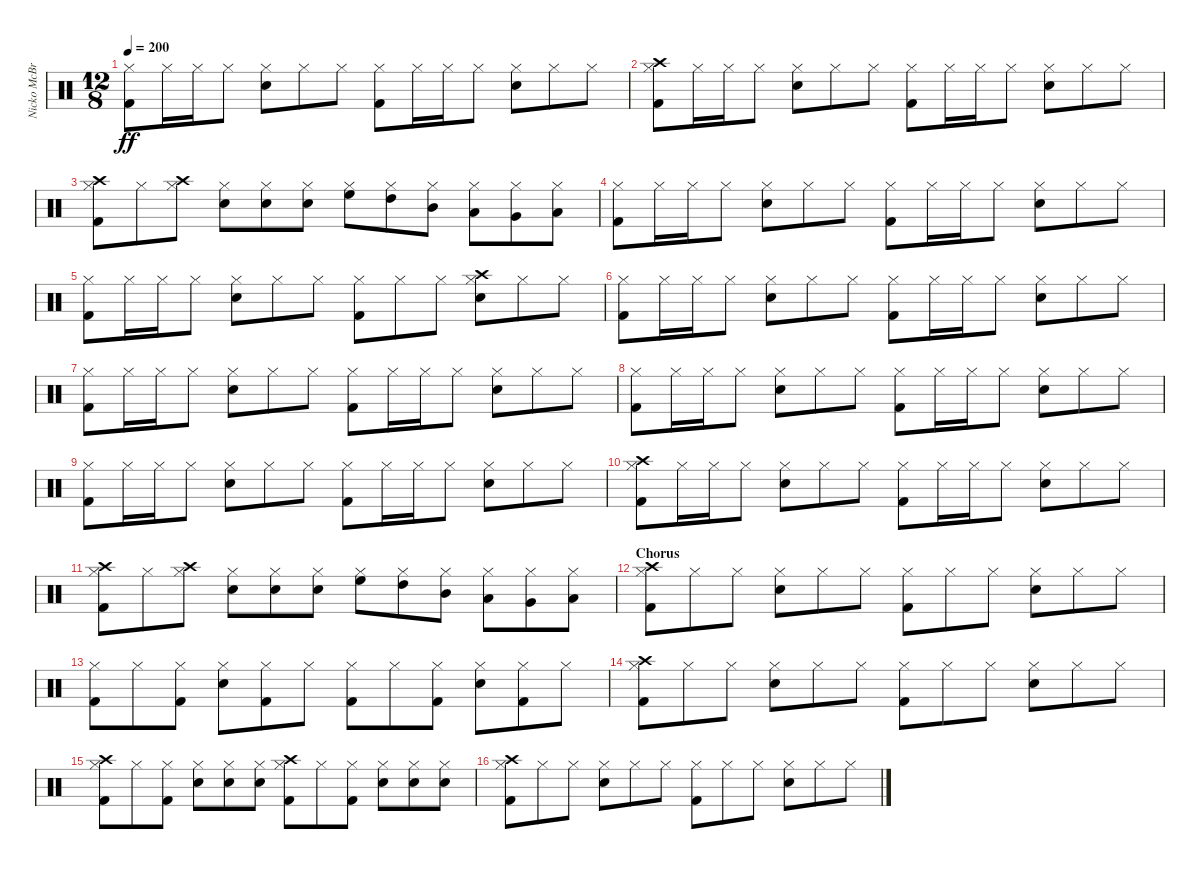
\track ("Nicko McBrain" "Nicko McBr") {instrument percussion}
\staff {score}
\articulation defaults
\ts (12 8)
\tempo 200
\clef neutral
\ks c
("Kick (hit) 2" "Hi-Hat (closed)").8{dy ff} "Hi-Hat (closed)".16 "Hi-Hat (closed)".16 "Hi-Hat (closed)".8 ("Snare (hit) 2" "Hi-Hat (closed)").8 "Hi-Hat (closed)".8 "Hi-Hat (closed)".8 ("Kick (hit) 2" "Hi-Hat (closed)").8 "Hi-Hat (closed)".16 "Hi-Hat (closed)".16 "Hi-Hat (closed)".8 ("Snare (hit) 2" "Hi-Hat (closed)").8 "Hi-Hat (closed)".8 "Hi-Hat (closed)".8 |
("Kick (hit) 2" "Hi-Hat (closed)" "Crash high (hit)").8 "Hi-Hat (closed)".16 "Hi-Hat (closed)".16 "Hi-Hat (closed)".8 ("Snare (hit) 2" "Hi-Hat (closed)").8 "Hi-Hat (closed)".8 "Hi-Hat (closed)".8 ("Kick (hit) 2" "Hi-Hat (closed)").8 "Hi-Hat (closed)".16 "Hi-Hat (closed)".16 "Hi-Hat (closed)".8 ("Snare (hit) 2" "Hi-Hat (closed)").8 "Hi-Hat (closed)".8 "Hi-Hat (closed)".8 |
("Kick (hit) 2" "Hi-Hat (closed)" "Crash high (hit)").8 "Hi-Hat (closed)".8 ("Hi-Hat (closed)" "Crash high (hit)").8 ("Snare (hit) 2" "Hi-Hat (closed)").8 ("Snare (hit) 2" "Hi-Hat (closed)").8 ("Snare (hit) 2" "Hi-Hat (closed)").8 ("Hi-Hat (closed)" "High Floor Tom (hit)").8 ("Hi-Hat (closed)" "High Tom (hit)").8 ("Hi-Hat (closed)" "Mid Tom (hit)").8 ("Hi-Hat (closed)" "Low Tom (hit)").8 ("Hi-Hat (closed)" "Very Low Tom (hit)").8 ("Low Floor Tom (hit)" "Hi-Hat (closed)").8 |
("Kick (hit) 2" "Hi-Hat (closed)").8 "Hi-Hat (closed)".16 "Hi-Hat (closed)".16 "Hi-Hat (closed)".8 ("Snare (hit) 2" "Hi-Hat (closed)").8 "Hi-Hat (closed)".8 "Hi-Hat (closed)".8 ("Kick (hit) 2" "Hi-Hat (closed)").8 "Hi-Hat (closed)".16 "Hi-Hat (closed)".16 "Hi-Hat (closed)".8 ("Snare (hit) 2" "Hi-Hat (closed)").8 "Hi-Hat (closed)".8 "Hi-Hat (closed)".8 |
("Kick (hit) 2" "Hi-Hat (closed)").8 "Hi-Hat (closed)".16 "Hi-Hat (closed)".16 "Hi-Hat (closed)".8 ("Snare (hit) 2" "Hi-Hat (closed)").8 "Hi-Hat (closed)".8 "Hi-Hat (closed)".8 ("Kick (hit) 2" "Hi-Hat (closed)").8 "Hi-Hat (closed)".8 "Hi-Hat (closed)".8 ("Snare (hit) 2" "Hi-Hat (closed)" "Crash high (hit)").8 "Hi-Hat (closed)".8 "Hi-Hat (closed)".8 |
("Kick (hit) 2" "Hi-Hat (closed)").8 "Hi-Hat (closed)".16 "Hi-Hat (closed)".16 "Hi-Hat (closed)".8 ("Snare (hit) 2" "Hi-Hat (closed)").8 "Hi-Hat (closed)".8 "Hi-Hat (closed)".8 ("Kick (hit) 2" "Hi-Hat (closed)").8 "Hi-Hat (closed)".16 "Hi-Hat (closed)".16 "Hi-Hat (closed)".8 ("Snare (hit) 2" "Hi-Hat (closed)").8 "Hi-Hat (closed)".8 "Hi-Hat (closed)".8 |
("Kick (hit) 2" "Hi-Hat (closed)").8 "Hi-Hat (closed)".16 "Hi-Hat (closed)".16 "Hi-Hat (closed)".8 ("Snare (hit) 2" "Hi-Hat (closed)").8 "Hi-Hat (closed)".8 "Hi-Hat (closed)".8 ("Kick (hit) 2" "Hi-Hat (closed)").8 "Hi-Hat (closed)".16 "Hi-Hat (closed)".16 "Hi-Hat (closed)".8 ("Snare (hit) 2" "Hi-Hat (closed)").8 "Hi-Hat (closed)".8 "Hi-Hat (closed)".8 |
("Kick (hit) 2" "Hi-Hat (closed)").8 "Hi-Hat (closed)".16 "Hi-Hat (closed)".16 "Hi-Hat (closed)".8 ("Snare (hit) 2" "Hi-Hat (closed)").8 "Hi-Hat (closed)".8 "Hi-Hat (closed)".8 ("Kick (hit) 2" "Hi-Hat (closed)").8 "Hi-Hat (closed)".16 "Hi-Hat (closed)".16 "Hi-Hat (closed)".8 ("Snare (hit) 2" "Hi-Hat (closed)").8 "Hi-Hat (closed)".8 "Hi-Hat (closed)".8 |
("Kick (hit) 2" "Hi-Hat (closed)").8 "Hi-Hat (closed)".16 "Hi-Hat (closed)".16 "Hi-Hat (closed)".8 ("Snare (hit) 2" "Hi-Hat (closed)").8 "Hi-Hat (closed)".8 "Hi-Hat (closed)".8 ("Kick (hit) 2" "Hi-Hat (closed)").8 "Hi-Hat (closed)".16 "Hi-Hat (closed)".16 "Hi-Hat (closed)".8 ("Snare (hit) 2" "Hi-Hat (closed)").8 "Hi-Hat (closed)".8 "Hi-Hat (closed)".8 |
("Kick (hit) 2" "Hi-Hat (closed)" "Crash high (hit)").8 "Hi-Hat (closed)".16 "Hi-Hat (closed)".16 "Hi-Hat (closed)".8 ("Snare (hit) 2" "Hi-Hat (closed)").8 "Hi-Hat (closed)".8 "Hi-Hat (closed)".8 ("Kick (hit) 2" "Hi-Hat (closed)").8 "Hi-Hat (closed)".16 "Hi-Hat (closed)".16 "Hi-Hat (closed)".8 ("Snare (hit) 2" "Hi-Hat (closed)").8 "Hi-Hat (closed)".8 "Hi-Hat (closed)".8 |
("Kick (hit) 2" "Hi-Hat (closed)" "Crash high (hit)").8 "Hi-Hat (closed)".8 ("Hi-Hat (closed)" "Crash high (hit)").8 ("Snare (hit) 2" "Hi-Hat (closed)").8 ("Snare (hit) 2" "Hi-Hat (closed)").8 ("Snare (hit) 2" "Hi-Hat (closed)").8 ("Hi-Hat (closed)" "High Floor Tom (hit)").8 ("Hi-Hat (closed)" "High Tom (hit)").8 ("Hi-Hat (closed)" "Mid Tom (hit)").8 ("Hi-Hat (closed)" "Low Tom (hit)").8 ("Hi-Hat (closed)" "Very Low Tom (hit)").8 ("Low Floor Tom (hit)" "Hi-Hat (closed)").8 |
\section ("" "Chorus")
("Kick (hit) 2" "Hi-Hat (closed)" "Crash high (hit)").8 "Hi-Hat (closed)".8 "Hi-Hat (closed)".8 ("Snare (hit) 2" "Hi-Hat (closed)").8 "Hi-Hat (closed)".8 "Hi-Hat (closed)".8 ("Kick (hit) 2" "Hi-Hat (closed)").8 "Hi-Hat (closed)".8 "Hi-Hat (closed)".8 ("Snare (hit) 2" "Hi-Hat (closed)").8 "Hi-Hat (closed)".8 "Hi-Hat (closed)".8 |
("Kick (hit) 2" "Hi-Hat (closed)").8 "Hi-Hat (closed)".8 ("Kick (hit) 2" "Hi-Hat (closed)").8 ("Snare (hit) 2" "Hi-Hat (closed)").8 ("Kick (hit) 2" "Hi-Hat (closed)").8 "Hi-Hat (closed)".8 ("Kick (hit) 2" "Hi-Hat (closed)").8 "Hi-Hat (closed)".8 ("Kick (hit) 2" "Hi-Hat (closed)").8 ("Snare (hit) 2" "Hi-Hat (closed)").8 ("Kick (hit) 2" "Hi-Hat (closed)").8 "Hi-Hat (closed)".8 |
("Kick (hit) 2" "Hi-Hat (closed)" "Crash high (hit)").8 "Hi-Hat (closed)".8 "Hi-Hat (closed)".8 ("Snare (hit) 2" "Hi-Hat (closed)").8 "Hi-Hat (closed)".8 "Hi-Hat (closed)".8 ("Kick (hit) 2" "Hi-Hat (closed)").8 "Hi-Hat (closed)".8 "Hi-Hat (closed)".8 ("Snare (hit) 2" "Hi-Hat (closed)").8 "Hi-Hat (closed)".8 "Hi-Hat (closed)".8 |
("Kick (hit) 2" "Hi-Hat (closed)" "Crash high (hit)").8 "Hi-Hat (closed)".8 ("Kick (hit) 2" "Hi-Hat (closed)").8 ("Snare (hit) 2" "Hi-Hat (closed)").8 ("Snare (hit) 2" "Hi-Hat (closed)").8 ("Snare (hit) 2" "Hi-Hat (closed)").8 ("Kick (hit) 2" "Hi-Hat (closed)" "Crash high (hit)").8 "Hi-Hat (closed)".8 ("Kick (hit) 2" "Hi-Hat (closed)").8 ("Snare (hit) 2" "Hi-Hat (closed)").8 ("Snare (hit) 2" "Hi-Hat (closed)").8 ("Snare (hit) 2" "Hi-Hat (closed)").8 |
("Kick (hit) 2" "Hi-Hat (closed)" "Crash high (hit)").8 "Hi-Hat (closed)".8 "Hi-Hat (closed)".8 ("Snare (hit) 2" "Hi-Hat (closed)").8 "Hi-Hat (closed)".8 "Hi-Hat (closed)".8 ("Kick (hit) 2" "Hi-Hat (closed)").8 "Hi-Hat (closed)".8 "Hi-Hat (closed)".8 ("Snare (hit) 2" "Hi-Hat (closed)").8 "Hi-Hat (closed)".8 "Hi-Hat (closed)".8
